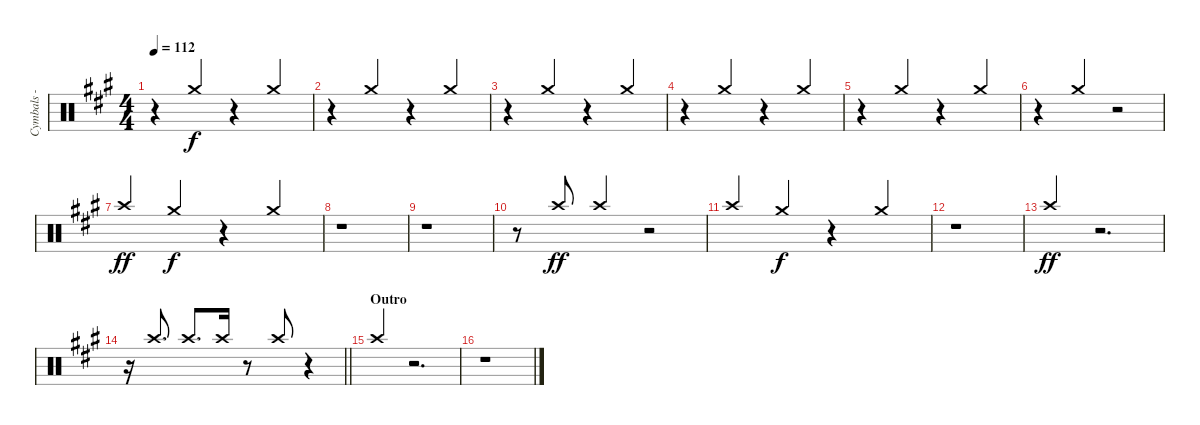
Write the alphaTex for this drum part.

\track ("Cymbals - crash" "Cymbals - ") {instrument percussion}
\staff {score}
\articulation defaults
\ts (4 4)
\tempo 112
\clef neutral
\ks f#minor
r.4{dy f beam Up} "Crash medium (hit)".4{beam Up} r.4 "Crash medium (hit)".4{beam Up} |
r.4{beam Up} "Crash medium (hit)".4{beam Up} r.4 "Crash medium (hit)".4{beam Up} |
r.4{beam Up} "Crash medium (hit)".4{beam Up} r.4 "Crash medium (hit)".4{beam Up} |
r.4{beam Up} "Crash medium (hit)".4{beam Up} r.4 "Crash medium (hit)".4{beam Up} |
r.4{beam Up} "Crash medium (hit)".4{beam Up} r.4 "Crash medium (hit)".4{beam Up} |
r.4{beam Up} "Crash medium (hit)".4{beam Up} r.2 |
"Crash high (hit)".4{dy ff beam Up} "Crash medium (hit)".4{dy f volume 3 balance 4 beam Up} r.4 "Crash medium (hit)".4{beam Up} |
r.1 |
r.1 |
r.8 "Crash high (hit)".8{dy ff beam Up} "Crash high (hit)".4{beam Up} r.2 |
"Crash high (hit)".4{beam Up} "Crash medium (hit)".4{dy f volume 3 balance 4 beam Up} r.4 "Crash medium (hit)".4{beam Up} |
r.1 |
"Crash high (hit)".4{dy ff volume 5 balance 8 beam Up} r.2{d} |
\barLineRight lightlight
r.16 "Crash high (hit)".8{d beam Up} "Crash high (hit)".8{d beam Up} "Crash high (hit)".16{beam Up} r.8 "Crash high (hit)".8{beam Up} r.4 |
\section ("" "Outro")
"Crash high (hit)".4{beam Up} r.2{d} |
r.1
